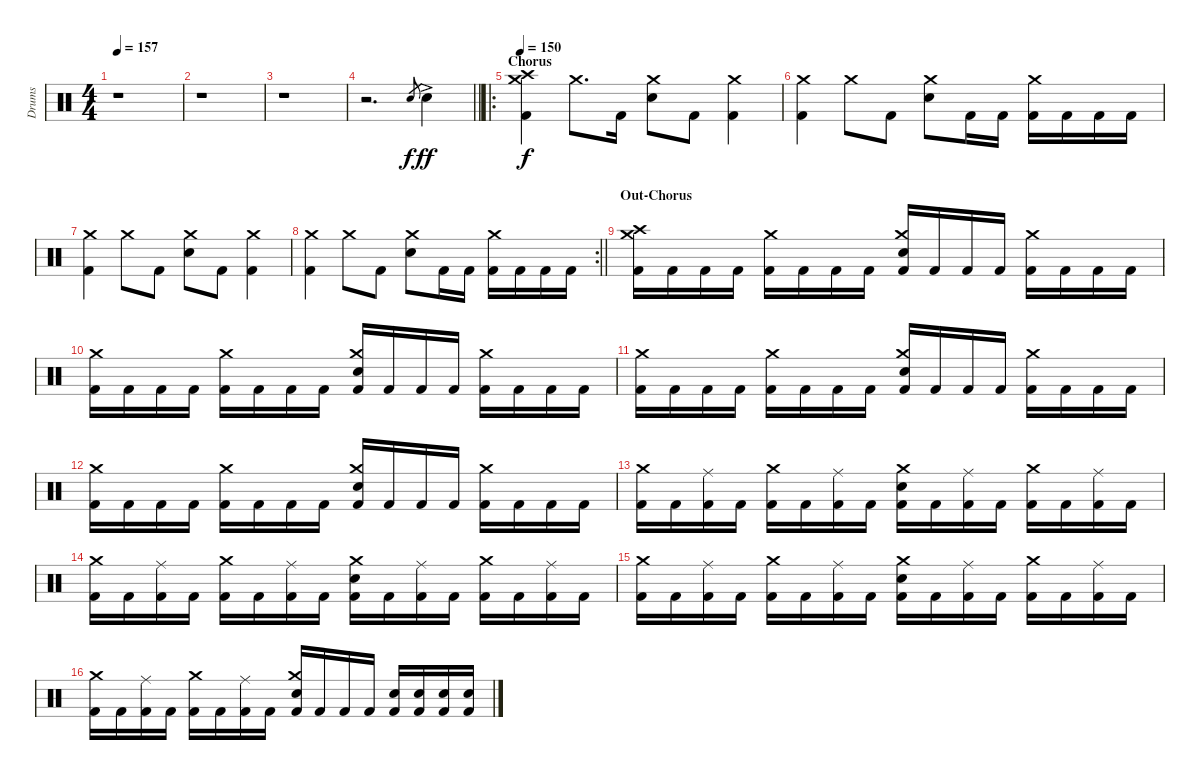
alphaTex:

\track ("Drums" "Drums") {instrument percussion}
\staff {score}
\articulation defaults
\ts (4 4)
\tempo 157
\clef neutral
\ks c
r.1{dy f} |
r.1 |
r.1 |
\barLineRight lightlight
r.2{d volume 14} "Electric Snare (hit)".8{gr} "Electric Snare (hit)"{ac}.4{dy ff} |
\ro
\section ("" "Chorus")
\tempo 150
("Crash medium (hit)" "Crash high (hit)" "Kick (hit) 2").4{dy f} "Crash medium (hit)".8{d} "Kick (hit) 2".16 ("Crash medium (hit)" "Electric Snare (hit)").8 "Kick (hit) 2".8 ("Crash medium (hit)" "Kick (hit) 2").4 |
("Crash medium (hit)" "Kick (hit) 2").4 "Crash medium (hit)".8 "Kick (hit) 2".8 ("Crash medium (hit)" "Electric Snare (hit)").8 "Kick (hit) 2".16 "Kick (hit) 2".16 ("Crash medium (hit)" "Kick (hit) 2").16 "Kick (hit) 2".16 "Kick (hit) 2".16 "Kick (hit) 2".16 |
("Crash medium (hit)" "Kick (hit) 2").4 "Crash medium (hit)".8 "Kick (hit) 2".8 ("Crash medium (hit)" "Electric Snare (hit)").8 "Kick (hit) 2".8 ("Crash medium (hit)" "Kick (hit) 2").4 |
\rc 2
\barLineRight lightlight
("Crash medium (hit)" "Kick (hit) 2").4 "Crash medium (hit)".8 "Kick (hit) 2".8 ("Crash medium (hit)" "Electric Snare (hit)").8 "Kick (hit) 2".16 "Kick (hit) 2".16 ("Crash medium (hit)" "Kick (hit) 2").16 "Kick (hit) 2".16 "Kick (hit) 2".16 "Kick (hit) 2".16 |
\section ("" "Out-Chorus")
("Crash medium (hit)" "Crash high (hit)" "Kick (hit) 2").16 "Kick (hit) 2".16 "Kick (hit) 2".16 "Kick (hit) 2".16 ("Crash medium (hit)" "Kick (hit) 2").16 "Kick (hit) 2".16 "Kick (hit) 2".16 "Kick (hit) 2".16 ("Crash medium (hit)" "Electric Snare (hit)" "Kick (hit) 2").16 "Kick (hit) 2".16 "Kick (hit) 2".16 "Kick (hit) 2".16 ("Crash medium (hit)" "Kick (hit) 2").16 "Kick (hit) 2".16 "Kick (hit) 2".16 "Kick (hit) 2".16 |
("Crash medium (hit)" "Kick (hit) 2").16 "Kick (hit) 2".16 "Kick (hit) 2".16 "Kick (hit) 2".16 ("Crash medium (hit)" "Kick (hit) 2").16 "Kick (hit) 2".16 "Kick (hit) 2".16 "Kick (hit) 2".16 ("Crash medium (hit)" "Electric Snare (hit)" "Kick (hit) 2").16 "Kick (hit) 2".16 "Kick (hit) 2".16 "Kick (hit) 2".16 ("Crash medium (hit)" "Kick (hit) 2").16 "Kick (hit) 2".16 "Kick (hit) 2".16 "Kick (hit) 2".16 |
("Crash medium (hit)" "Kick (hit) 2").16 "Kick (hit) 2".16 "Kick (hit) 2".16 "Kick (hit) 2".16 ("Crash medium (hit)" "Kick (hit) 2").16 "Kick (hit) 2".16 "Kick (hit) 2".16 "Kick (hit) 2".16 ("Crash medium (hit)" "Electric Snare (hit)" "Kick (hit) 2").16 "Kick (hit) 2".16 "Kick (hit) 2".16 "Kick (hit) 2".16 ("Crash medium (hit)" "Kick (hit) 2").16 "Kick (hit) 2".16 "Kick (hit) 2".16 "Kick (hit) 2".16 |
("Crash medium (hit)" "Kick (hit) 2").16 "Kick (hit) 2".16 "Kick (hit) 2".16 "Kick (hit) 2".16 ("Crash medium (hit)" "Kick (hit) 2").16 "Kick (hit) 2".16 "Kick (hit) 2".16 "Kick (hit) 2".16 ("Crash medium (hit)" "Electric Snare (hit)" "Kick (hit) 2").16 "Kick (hit) 2".16 "Kick (hit) 2".16 "Kick (hit) 2".16 ("Crash medium (hit)" "Kick (hit) 2").16 "Kick (hit) 2".16 "Kick (hit) 2".16 "Kick (hit) 2".16 |
("Crash medium (hit)" "Kick (hit) 2").16 "Kick (hit) 2".16 ("Ride (middle)" "Kick (hit) 2").16 "Kick (hit) 2".16 ("Crash medium (hit)" "Kick (hit) 2").16 "Kick (hit) 2".16 ("Ride (middle)" "Kick (hit) 2").16 "Kick (hit) 2".16 ("Crash medium (hit)" "Electric Snare (hit)" "Kick (hit) 2").16 "Kick (hit) 2".16 ("Ride (middle)" "Kick (hit) 2").16 "Kick (hit) 2".16 ("Crash medium (hit)" "Kick (hit) 2").16 "Kick (hit) 2".16 ("Ride (middle)" "Kick (hit) 2").16 "Kick (hit) 2".16 |
("Crash medium (hit)" "Kick (hit) 2").16 "Kick (hit) 2".16 ("Ride (middle)" "Kick (hit) 2").16 "Kick (hit) 2".16 ("Crash medium (hit)" "Kick (hit) 2").16 "Kick (hit) 2".16 ("Ride (middle)" "Kick (hit) 2").16 "Kick (hit) 2".16 ("Crash medium (hit)" "Electric Snare (hit)" "Kick (hit) 2").16 "Kick (hit) 2".16 ("Ride (middle)" "Kick (hit) 2").16 "Kick (hit) 2".16 ("Crash medium (hit)" "Kick (hit) 2").16 "Kick (hit) 2".16 ("Ride (middle)" "Kick (hit) 2").16 "Kick (hit) 2".16 |
("Crash medium (hit)" "Kick (hit) 2").16 "Kick (hit) 2".16 ("Ride (middle)" "Kick (hit) 2").16 "Kick (hit) 2".16 ("Crash medium (hit)" "Kick (hit) 2").16 "Kick (hit) 2".16 ("Ride (middle)" "Kick (hit) 2").16 "Kick (hit) 2".16 ("Crash medium (hit)" "Electric Snare (hit)" "Kick (hit) 2").16 "Kick (hit) 2".16 ("Ride (middle)" "Kick (hit) 2").16 "Kick (hit) 2".16 ("Crash medium (hit)" "Kick (hit) 2").16 "Kick (hit) 2".16 ("Ride (middle)" "Kick (hit) 2").16 "Kick (hit) 2".16 |
("Crash medium (hit)" "Kick (hit) 2").16 "Kick (hit) 2".16 ("Ride (middle)" "Kick (hit) 2").16 "Kick (hit) 2".16 ("Crash medium (hit)" "Kick (hit) 2").16 "Kick (hit) 2".16 ("Ride (middle)" "Kick (hit) 2").16 "Kick (hit) 2".16 ("Crash medium (hit)" "Electric Snare (hit)" "Kick (hit) 2").16 "Kick (hit) 2".16 "Kick (hit) 2".16 "Kick (hit) 2".16 ("Electric Snare (hit)" "Kick (hit) 2").16 ("Electric Snare (hit)" "Kick (hit) 2").16 ("Electric Snare (hit)" "Kick (hit) 2").16 ("Electric Snare (hit)" "Kick (hit) 2").16
